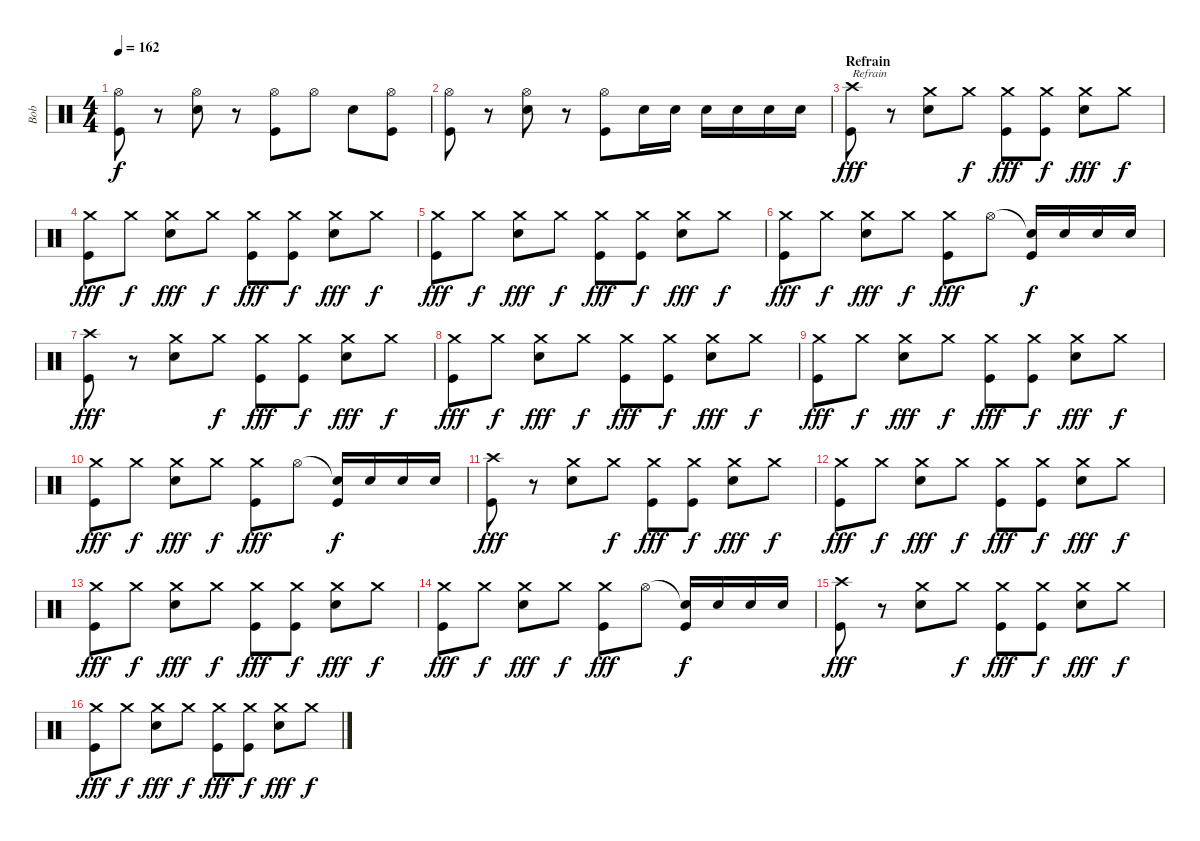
\track ("Bob" "Bob") {instrument percussion}
\staff {score}
\articulation defaults
\ts (4 4)
\tempo 162
\clef neutral
\ks c
("Hi-Hat (open)" "Kick (hit)").8{dy f} r.8 ("Hi-Hat (open)" "Electric Snare (hit)").8 r.8 ("Hi-Hat (open)" "Kick (hit)").8 "Hi-Hat (open)".8 "Electric Snare (hit)".8 ("Hi-Hat (open)" "Kick (hit)").8 |
("Hi-Hat (open)" "Kick (hit)").8 r.8 ("Hi-Hat (open)" "Electric Snare (hit)").8 r.8 ("Hi-Hat (open)" "Kick (hit)").8 "Electric Snare (hit)".16 "Electric Snare (hit)".16 "Electric Snare (hit)".16 "Electric Snare (hit)".16 "Electric Snare (hit)".16 "Electric Snare (hit)".16 |
\section ("" "Refrain")
("Crash high (hit)" "Kick (hit)").8{txt "Refrain" dy fff} r.8 ("Crash medium (hit)" "Electric Snare (hit)").8 "Crash medium (hit)".8{dy f} ("Crash medium (hit)" "Kick (hit)").8{dy fff} ("Crash medium (hit)" "Kick (hit)").8{dy f} ("Crash medium (hit)" "Electric Snare (hit)").8{dy fff} "Crash medium (hit)".8{dy f} |
("Crash medium (hit)" "Kick (hit)").8{dy fff} "Crash medium (hit)".8{dy f} ("Crash medium (hit)" "Electric Snare (hit)").8{dy fff} "Crash medium (hit)".8{dy f} ("Crash medium (hit)" "Kick (hit)").8{dy fff} ("Crash medium (hit)" "Kick (hit)").8{dy f} ("Crash medium (hit)" "Electric Snare (hit)").8{dy fff} "Crash medium (hit)".8{dy f} |
("Crash medium (hit)" "Kick (hit)").8{dy fff} "Crash medium (hit)".8{dy f} ("Crash medium (hit)" "Electric Snare (hit)").8{dy fff} "Crash medium (hit)".8{dy f} ("Crash medium (hit)" "Kick (hit)").8{dy fff} ("Crash medium (hit)" "Kick (hit)").8{dy f} ("Crash medium (hit)" "Electric Snare (hit)").8{dy fff} "Crash medium (hit)".8{dy f} |
("Crash medium (hit)" "Kick (hit)").8{dy fff} "Crash medium (hit)".8{dy f} ("Crash medium (hit)" "Electric Snare (hit)").8{dy fff} "Crash medium (hit)".8{dy f} ("Crash medium (hit)" "Kick (hit)").8{dy fff} "Hi-Hat (open)".8 ("Snare (hit)"{t} "Kick (hit)").16{dy f} "Electric Snare (hit)".16 "Electric Snare (hit)".16 "Electric Snare (hit)".16 |
("Crash high (hit)" "Kick (hit)").8{dy fff} r.8 ("Crash medium (hit)" "Electric Snare (hit)").8 "Crash medium (hit)".8{dy f} ("Crash medium (hit)" "Kick (hit)").8{dy fff} ("Crash medium (hit)" "Kick (hit)").8{dy f} ("Crash medium (hit)" "Electric Snare (hit)").8{dy fff} "Crash medium (hit)".8{dy f} |
("Crash medium (hit)" "Kick (hit)").8{dy fff} "Crash medium (hit)".8{dy f} ("Crash medium (hit)" "Electric Snare (hit)").8{dy fff} "Crash medium (hit)".8{dy f} ("Crash medium (hit)" "Kick (hit)").8{dy fff} ("Crash medium (hit)" "Kick (hit)").8{dy f} ("Crash medium (hit)" "Electric Snare (hit)").8{dy fff} "Crash medium (hit)".8{dy f} |
("Crash medium (hit)" "Kick (hit)").8{dy fff} "Crash medium (hit)".8{dy f} ("Crash medium (hit)" "Electric Snare (hit)").8{dy fff} "Crash medium (hit)".8{dy f} ("Crash medium (hit)" "Kick (hit)").8{dy fff} ("Crash medium (hit)" "Kick (hit)").8{dy f} ("Crash medium (hit)" "Electric Snare (hit)").8{dy fff} "Crash medium (hit)".8{dy f} |
("Crash medium (hit)" "Kick (hit)").8{dy fff} "Crash medium (hit)".8{dy f} ("Crash medium (hit)" "Electric Snare (hit)").8{dy fff} "Crash medium (hit)".8{dy f} ("Crash medium (hit)" "Kick (hit)").8{dy fff} "Hi-Hat (open)".8 ("Snare (hit)"{t} "Kick (hit)").16{dy f} "Electric Snare (hit)".16 "Electric Snare (hit)".16 "Electric Snare (hit)".16 |
("Crash high (hit)" "Kick (hit)").8{dy fff} r.8 ("Crash medium (hit)" "Electric Snare (hit)").8 "Crash medium (hit)".8{dy f} ("Crash medium (hit)" "Kick (hit)").8{dy fff} ("Crash medium (hit)" "Kick (hit)").8{dy f} ("Crash medium (hit)" "Electric Snare (hit)").8{dy fff} "Crash medium (hit)".8{dy f} |
("Crash medium (hit)" "Kick (hit)").8{dy fff} "Crash medium (hit)".8{dy f} ("Crash medium (hit)" "Electric Snare (hit)").8{dy fff} "Crash medium (hit)".8{dy f} ("Crash medium (hit)" "Kick (hit)").8{dy fff} ("Crash medium (hit)" "Kick (hit)").8{dy f} ("Crash medium (hit)" "Electric Snare (hit)").8{dy fff} "Crash medium (hit)".8{dy f} |
("Crash medium (hit)" "Kick (hit)").8{dy fff} "Crash medium (hit)".8{dy f} ("Crash medium (hit)" "Electric Snare (hit)").8{dy fff} "Crash medium (hit)".8{dy f} ("Crash medium (hit)" "Kick (hit)").8{dy fff} ("Crash medium (hit)" "Kick (hit)").8{dy f} ("Crash medium (hit)" "Electric Snare (hit)").8{dy fff} "Crash medium (hit)".8{dy f} |
("Crash medium (hit)" "Kick (hit)").8{dy fff} "Crash medium (hit)".8{dy f} ("Crash medium (hit)" "Electric Snare (hit)").8{dy fff} "Crash medium (hit)".8{dy f} ("Crash medium (hit)" "Kick (hit)").8{dy fff} "Hi-Hat (open)".8 ("Snare (hit)"{t} "Kick (hit)").16{dy f} "Electric Snare (hit)".16 "Electric Snare (hit)".16 "Electric Snare (hit)".16 |
("Crash high (hit)" "Kick (hit)").8{dy fff} r.8 ("Crash medium (hit)" "Electric Snare (hit)").8 "Crash medium (hit)".8{dy f} ("Crash medium (hit)" "Kick (hit)").8{dy fff} ("Crash medium (hit)" "Kick (hit)").8{dy f} ("Crash medium (hit)" "Electric Snare (hit)").8{dy fff} "Crash medium (hit)".8{dy f} |
("Crash medium (hit)" "Kick (hit)").8{dy fff} "Crash medium (hit)".8{dy f} ("Crash medium (hit)" "Electric Snare (hit)").8{dy fff} "Crash medium (hit)".8{dy f} ("Crash medium (hit)" "Kick (hit)").8{dy fff} ("Crash medium (hit)" "Kick (hit)").8{dy f} ("Crash medium (hit)" "Electric Snare (hit)").8{dy fff} "Crash medium (hit)".8{dy f}
